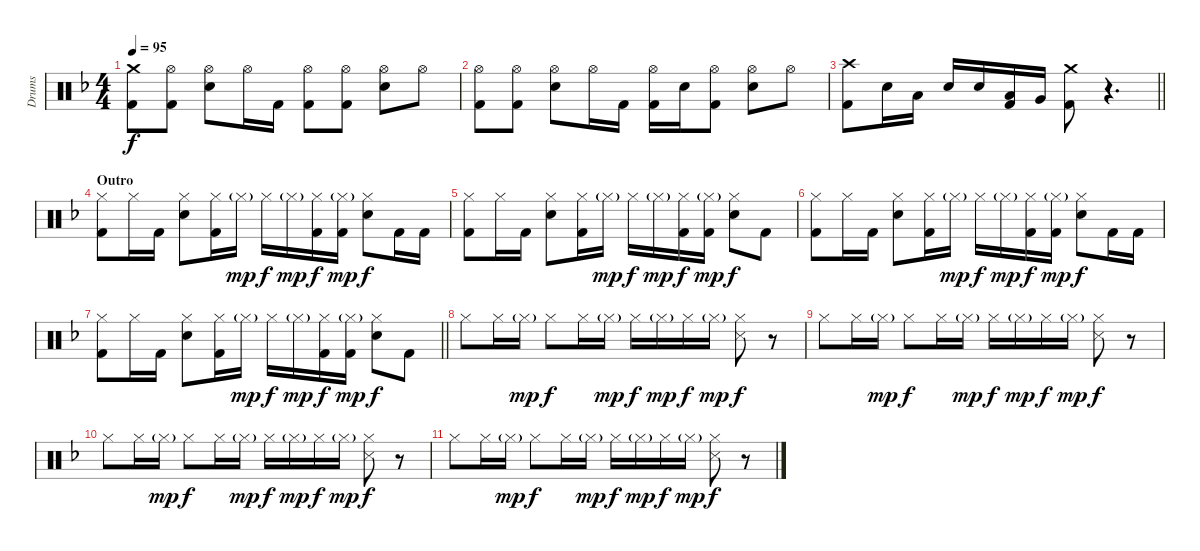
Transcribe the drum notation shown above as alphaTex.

\track ("Drums" "Drums") {instrument percussion}
\staff {score}
\articulation defaults
\ts (4 4)
\tempo 95
\clef neutral
\ks f
("Crash medium (hit)" "Kick (hit) 2").8{dy f} ("Hi-Hat (open)" "Kick (hit) 2").8 ("Hi-Hat (open)" "Electric Snare (hit)").8 "Hi-Hat (open)".16 "Kick (hit) 2".16 ("Hi-Hat (open)" "Kick (hit) 2").8 ("Hi-Hat (open)" "Kick (hit) 2").8 ("Hi-Hat (open)" "Electric Snare (hit)").8 "Hi-Hat (open)".8 |
("Hi-Hat (open)" "Kick (hit) 2").8 ("Hi-Hat (open)" "Kick (hit) 2").8 ("Hi-Hat (open)" "Electric Snare (hit)").8 "Hi-Hat (open)".16 "Kick (hit) 2".16 ("Hi-Hat (open)" "Kick (hit) 2").16 "Electric Snare (hit)".16 ("Hi-Hat (open)" "Kick (hit) 2").8 ("Hi-Hat (open)" "Electric Snare (hit)").8 "Hi-Hat (open)".8 |
\barLineRight lightlight
("Crash high (hit)" "Kick (hit) 2").8 "Electric Snare (hit)".16 "Low Tom (hit)".16 "Electric Snare (hit)".16 "Electric Snare (hit)".16 ("Low Tom (hit)" "Kick (hit) 2").16 "Very Low Tom (hit)".16 ("Crash medium (hit)" "Kick (hit) 2").8 r.4{d} |
\section ("" "Outro")
("Hi-Hat (closed)" "Kick (hit) 2").8 "Hi-Hat (closed)".16 "Kick (hit) 2".16 ("Hi-Hat (closed)" "Electric Snare (hit)").8 ("Hi-Hat (closed)" "Kick (hit) 2").16 "Hi-Hat (closed)"{g}.16{dy mp} "Hi-Hat (closed)".16{dy f} "Hi-Hat (closed)"{g}.16{dy mp} ("Hi-Hat (closed)" "Kick (hit) 2").16{dy f} ("Hi-Hat (closed)"{g} "Kick (hit) 2").16{dy mp} ("Hi-Hat (closed)" "Electric Snare (hit)").8{dy f} "Kick (hit) 2".16 "Kick (hit) 2".16 |
("Hi-Hat (closed)" "Kick (hit) 2").8 "Hi-Hat (closed)".16 "Kick (hit) 2".16 ("Hi-Hat (closed)" "Electric Snare (hit)").8 ("Hi-Hat (closed)" "Kick (hit) 2").16 "Hi-Hat (closed)"{g}.16{dy mp} "Hi-Hat (closed)".16{dy f} "Hi-Hat (closed)"{g}.16{dy mp} ("Hi-Hat (closed)" "Kick (hit) 2").16{dy f} ("Hi-Hat (closed)"{g} "Kick (hit) 2").16{dy mp} ("Hi-Hat (closed)" "Electric Snare (hit)").8{dy f} "Kick (hit) 2".8 |
("Hi-Hat (closed)" "Kick (hit) 2").8 "Hi-Hat (closed)".16 "Kick (hit) 2".16 ("Hi-Hat (closed)" "Electric Snare (hit)").8 ("Hi-Hat (closed)" "Kick (hit) 2").16 "Hi-Hat (closed)"{g}.16{dy mp} "Hi-Hat (closed)".16{dy f} "Hi-Hat (closed)"{g}.16{dy mp} ("Hi-Hat (closed)" "Kick (hit) 2").16{dy f} ("Hi-Hat (closed)"{g} "Kick (hit) 2").16{dy mp} ("Hi-Hat (closed)" "Electric Snare (hit)").8{dy f} "Kick (hit) 2".16 "Kick (hit) 2".16 |
\barLineRight lightlight
("Hi-Hat (closed)" "Kick (hit) 2").8 "Hi-Hat (closed)".16 "Kick (hit) 2".16 ("Hi-Hat (closed)" "Electric Snare (hit)").8 ("Hi-Hat (closed)" "Kick (hit) 2").16 "Hi-Hat (closed)"{g}.16{dy mp} "Hi-Hat (closed)".16{dy f} "Hi-Hat (closed)"{g}.16{dy mp} ("Hi-Hat (closed)" "Kick (hit) 2").16{dy f} ("Hi-Hat (closed)"{g} "Kick (hit) 2").16{dy mp} ("Hi-Hat (closed)" "Electric Snare (hit)").8{dy f} "Kick (hit) 2".8 |
"Hi-Hat (closed)".8 "Hi-Hat (closed)".16 "Hi-Hat (closed)"{g}.16{dy mp} "Hi-Hat (closed)".8{dy f} "Hi-Hat (closed)".16 "Hi-Hat (closed)"{g}.16{dy mp} "Hi-Hat (closed)".16{dy f} "Hi-Hat (closed)"{g}.16{dy mp} "Hi-Hat (closed)".16{dy f} "Hi-Hat (closed)"{g}.16{dy mp} ("Hi-Hat (closed)" "Snare (side stick) 3").8{dy f} r.8 |
"Hi-Hat (closed)".8 "Hi-Hat (closed)".16 "Hi-Hat (closed)"{g}.16{dy mp} "Hi-Hat (closed)".8{dy f} "Hi-Hat (closed)".16 "Hi-Hat (closed)"{g}.16{dy mp} "Hi-Hat (closed)".16{dy f} "Hi-Hat (closed)"{g}.16{dy mp} "Hi-Hat (closed)".16{dy f} "Hi-Hat (closed)"{g}.16{dy mp} ("Hi-Hat (closed)" "Snare (side stick) 3").8{dy f} r.8 |
"Hi-Hat (closed)".8 "Hi-Hat (closed)".16 "Hi-Hat (closed)"{g}.16{dy mp} "Hi-Hat (closed)".8{dy f} "Hi-Hat (closed)".16 "Hi-Hat (closed)"{g}.16{dy mp} "Hi-Hat (closed)".16{dy f} "Hi-Hat (closed)"{g}.16{dy mp} "Hi-Hat (closed)".16{dy f} "Hi-Hat (closed)"{g}.16{dy mp} ("Hi-Hat (closed)" "Snare (side stick) 3").8{dy f} r.8 |
"Hi-Hat (closed)".8 "Hi-Hat (closed)".16 "Hi-Hat (closed)"{g}.16{dy mp} "Hi-Hat (closed)".8{dy f} "Hi-Hat (closed)".16 "Hi-Hat (closed)"{g}.16{dy mp} "Hi-Hat (closed)".16{dy f} "Hi-Hat (closed)"{g}.16{dy mp} "Hi-Hat (closed)".16{dy f} "Hi-Hat (closed)"{g}.16{dy mp} ("Hi-Hat (closed)" "Snare (side stick) 3").8{dy f} r.8
